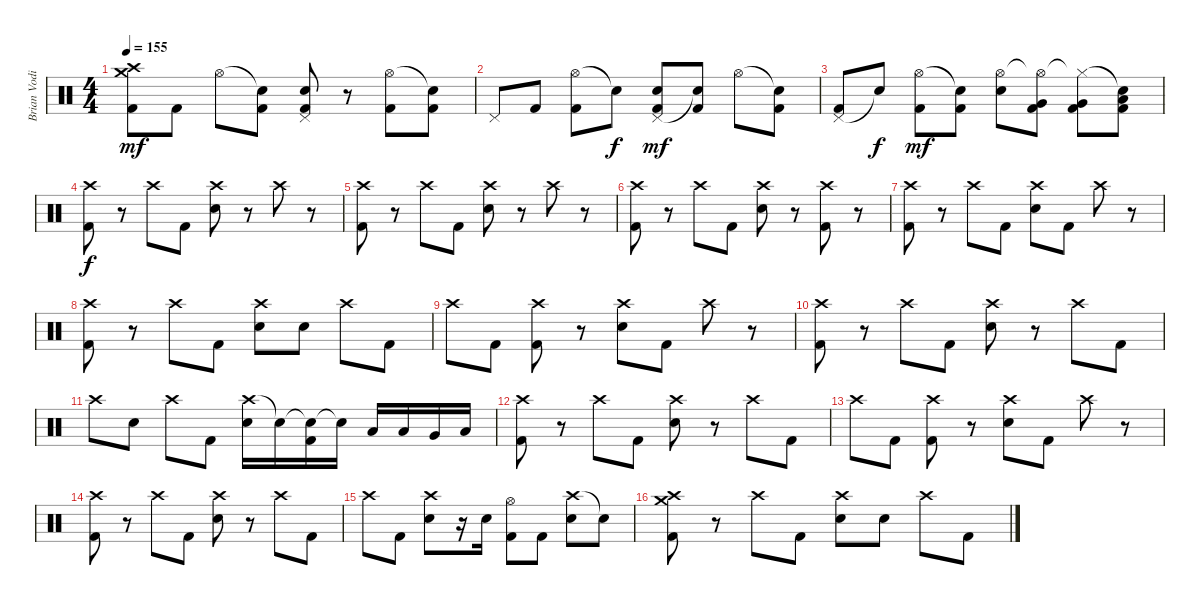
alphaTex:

\track ("Brian Vodinh" "Brian Vodi") {instrument percussion}
\staff {score}
\articulation defaults
\ts (4 4)
\tempo 155
\clef neutral
\ks c
("Crash medium (hit)" "Crash high (hit)" "Kick (hit) 2").8{dy mf} "Kick (hit) 2".8 "Hi-Hat (open)".8 ("Snare (hit)"{t} "Kick (hit) 2").8 ("Pedal Hi-Hat (hit)" "Electric Snare (hit)" "Kick (hit) 2").8 r.8 ("Hi-Hat (open)" "Kick (hit) 2").8 ("Snare (hit)"{t} "Kick (hit) 2").8 |
"Pedal Hi-Hat (hit)".8 "Kick (hit) 2".8 ("Hi-Hat (open)" "Kick (hit) 2").8 "Snare (hit)"{t}.8{dy f} ("Pedal Hi-Hat (hit)" "Electric Snare (hit)" "Kick (hit) 2").8{dy mf} ("Snare (hit)"{t} "Kick (hit) 2").8 "Hi-Hat (open)".8 ("Snare (hit)"{t} "Kick (hit) 2").8 |
("Pedal Hi-Hat (hit)" "Kick (hit) 2").8 "Snare (hit)"{t}.8{dy f} ("Hi-Hat (open)" "Kick (hit) 2").8{dy mf} ("Snare (hit)"{t} "Kick (hit) 2").8 ("Hi-Hat (open)" "Electric Snare (hit)").8 ("Hi-Hat (open)"{t} "Very Low Tom (hit)" "Kick (hit) 2").8 ("Hi-Hat (closed)"{t} "Very Low Tom (hit)" "Kick (hit) 2").8 ("Snare (hit)"{t} "Low Floor Tom (hit)" "Kick (hit) 2").8 |
("Crash high (hit)" "Kick (hit) 2").8{dy f} r.8 "Crash high (hit)".8 "Kick (hit) 2".8 ("Crash high (hit)" "Electric Snare (hit)").8 r.8 "Crash high (hit)".8 r.8 |
("Crash high (hit)" "Kick (hit) 2").8 r.8 "Crash high (hit)".8 "Kick (hit) 2".8 ("Crash high (hit)" "Electric Snare (hit)").8 r.8 "Crash high (hit)".8 r.8 |
("Crash high (hit)" "Kick (hit) 2").8 r.8 "Crash high (hit)".8 "Kick (hit) 2".8 ("Crash high (hit)" "Electric Snare (hit)").8 r.8 ("Crash high (hit)" "Kick (hit) 2").8 r.8 |
("Crash high (hit)" "Kick (hit) 2").8 r.8 "Crash high (hit)".8 "Kick (hit) 2".8 ("Crash high (hit)" "Electric Snare (hit)").8 "Kick (hit) 2".8 "Crash high (hit)".8 r.8 |
("Crash high (hit)" "Kick (hit) 2").8 r.8 "Crash high (hit)".8 "Kick (hit) 2".8 ("Crash high (hit)" "Electric Snare (hit)").8 "Electric Snare (hit)".8 "Crash high (hit)".8 "Kick (hit) 2".8 |
"Crash high (hit)".8 "Kick (hit) 2".8 ("Crash high (hit)" "Kick (hit) 2").8 r.8 ("Crash high (hit)" "Electric Snare (hit)").8 "Kick (hit) 2".8 "Crash high (hit)".8 r.8 |
("Crash high (hit)" "Kick (hit) 2").8 r.8 "Crash high (hit)".8 "Kick (hit) 2".8 ("Crash high (hit)" "Electric Snare (hit)").8 r.8 "Crash high (hit)".8 "Kick (hit) 2".8 |
"Crash high (hit)".8 "Electric Snare (hit)".8 "Crash high (hit)".8 "Kick (hit) 2".8 ("Crash high (hit)" "Electric Snare (hit)").16 "Snare (hit)"{t}.16 ("Snare (hit)"{t} "Kick (hit) 2").16 "Snare (hit)"{t}.16 "Low Tom (hit)".16 "Low Tom (hit)".16 "Very Low Tom (hit)".16 "Low Floor Tom (hit)".16 |
("Crash high (hit)" "Kick (hit) 2").8 r.8 "Crash high (hit)".8 "Kick (hit) 2".8 ("Crash high (hit)" "Electric Snare (hit)").8 r.8 "Crash high (hit)".8 "Kick (hit) 2".8 |
"Crash high (hit)".8 "Kick (hit) 2".8 ("Crash high (hit)" "Kick (hit) 2").8 r.8 ("Crash high (hit)" "Electric Snare (hit)").8 "Kick (hit) 2".8 "Crash high (hit)".8 r.8 |
("Crash high (hit)" "Kick (hit) 2").8 r.8 "Crash high (hit)".8 "Kick (hit) 2".8 ("Crash high (hit)" "Electric Snare (hit)").8 r.8 "Crash high (hit)".8 "Kick (hit) 2".8 |
"Crash high (hit)".8 "Kick (hit) 2".8 ("Crash high (hit)" "Electric Snare (hit)").8 r.16 "Electric Snare (hit)".16 ("Hi-Hat (open)" "Kick (hit) 2").8 "Kick (hit) 2".8 ("Crash high (hit)" "Electric Snare (hit)").8 "Snare (hit)"{t}.8 |
("Crash high (hit)" "Crash medium (hit)" "Kick (hit) 2").8 r.8 "Crash high (hit)".8 "Kick (hit) 2".8 ("Crash high (hit)" "Electric Snare (hit)").8 "Electric Snare (hit)".8 "Crash high (hit)".8 "Kick (hit) 2".8
